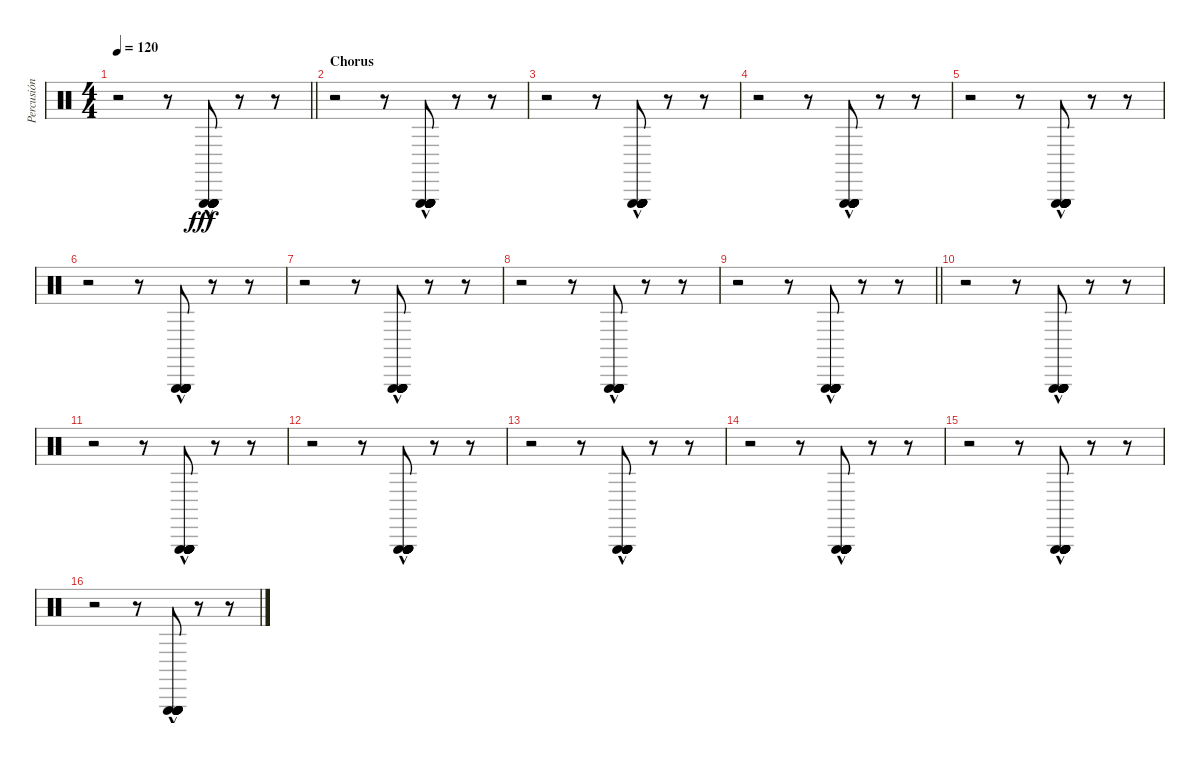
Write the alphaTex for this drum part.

\track ("Percusión" "Percusión") {instrument percussion}
\staff {score}
\articulation defaults
\ts (4 4)
\tempo 120
\clef neutral
\barLineRight lightlight
\ks c
r.2{dy fff} r.8 ("Triangle (hit)" "Triangle (hit)" "Triangle (hit)" "Triangle (hit)" "Triangle (hit)" "Triangle (hit)"{hac}).8 r.8 r.8 |
\section ("" "Chorus")
r.2 r.8 ("Triangle (hit)" "Triangle (hit)" "Triangle (hit)" "Triangle (hit)" "Triangle (hit)" "Triangle (hit)"{hac}).8 r.8 r.8 |
r.2 r.8 ("Triangle (hit)" "Triangle (hit)" "Triangle (hit)" "Triangle (hit)" "Triangle (hit)" "Triangle (hit)"{hac}).8 r.8 r.8 |
r.2 r.8 ("Triangle (hit)" "Triangle (hit)" "Triangle (hit)" "Triangle (hit)" "Triangle (hit)" "Triangle (hit)"{hac}).8 r.8 r.8 |
r.2 r.8 ("Triangle (hit)" "Triangle (hit)" "Triangle (hit)" "Triangle (hit)" "Triangle (hit)" "Triangle (hit)"{hac}).8 r.8 r.8 |
r.2 r.8 ("Triangle (hit)" "Triangle (hit)" "Triangle (hit)" "Triangle (hit)" "Triangle (hit)" "Triangle (hit)"{hac}).8 r.8 r.8 |
r.2 r.8 ("Triangle (hit)" "Triangle (hit)" "Triangle (hit)" "Triangle (hit)" "Triangle (hit)" "Triangle (hit)"{hac}).8 r.8 r.8 |
r.2 r.8 ("Triangle (hit)" "Triangle (hit)" "Triangle (hit)" "Triangle (hit)" "Triangle (hit)" "Triangle (hit)"{hac}).8 r.8 r.8 |
\barLineRight lightlight
r.2 r.8 ("Triangle (hit)" "Triangle (hit)" "Triangle (hit)" "Triangle (hit)" "Triangle (hit)" "Triangle (hit)"{hac}).8 r.8 r.8 |
r.2 r.8 ("Triangle (hit)" "Triangle (hit)" "Triangle (hit)" "Triangle (hit)" "Triangle (hit)" "Triangle (hit)"{hac}).8 r.8 r.8 |
r.2 r.8 ("Triangle (hit)" "Triangle (hit)" "Triangle (hit)" "Triangle (hit)" "Triangle (hit)" "Triangle (hit)"{hac}).8 r.8 r.8 |
r.2 r.8 ("Triangle (hit)" "Triangle (hit)" "Triangle (hit)" "Triangle (hit)" "Triangle (hit)" "Triangle (hit)"{hac}).8 r.8 r.8 |
r.2 r.8 ("Triangle (hit)" "Triangle (hit)" "Triangle (hit)" "Triangle (hit)" "Triangle (hit)" "Triangle (hit)"{hac}).8 r.8 r.8 |
r.2 r.8 ("Triangle (hit)" "Triangle (hit)" "Triangle (hit)" "Triangle (hit)" "Triangle (hit)" "Triangle (hit)"{hac}).8 r.8 r.8 |
r.2 r.8 ("Triangle (hit)" "Triangle (hit)" "Triangle (hit)" "Triangle (hit)" "Triangle (hit)" "Triangle (hit)"{hac}).8 r.8 r.8 |
r.2 r.8 ("Triangle (hit)" "Triangle (hit)" "Triangle (hit)" "Triangle (hit)" "Triangle (hit)" "Triangle (hit)"{hac}).8 r.8 r.8
